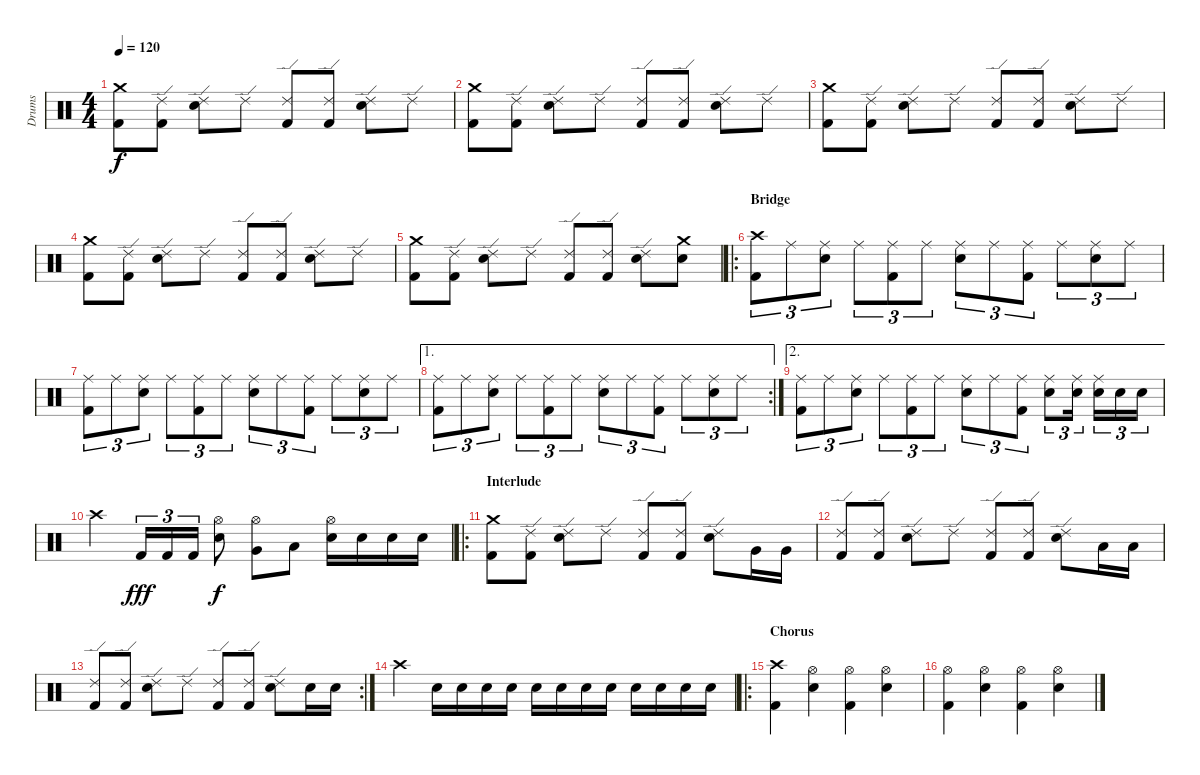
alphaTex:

\track ("Drums" "Drums") {instrument percussion}
\staff {score}
\articulation defaults
\ts (4 4)
\tempo 120
\clef neutral
\ks c
("Crash medium (hit)" "Kick (hit) 2").8{dy f} ("Ride (edge) 2" "Kick (hit) 2").8 ("Ride (edge) 2" "Electric Snare (hit)").8 "Ride (edge) 2".8 ("Ride (edge) 2" "Kick (hit) 2").8 ("Ride (edge) 2" "Kick (hit) 2").8 ("Ride (edge) 2" "Electric Snare (hit)").8 "Ride (edge) 2".8 |
("Crash medium (hit)" "Kick (hit) 2").8 ("Ride (edge) 2" "Kick (hit) 2").8 ("Ride (edge) 2" "Electric Snare (hit)").8 "Ride (edge) 2".8 ("Ride (edge) 2" "Kick (hit) 2").8 ("Ride (edge) 2" "Kick (hit) 2").8 ("Ride (edge) 2" "Electric Snare (hit)").8 "Ride (edge) 2".8 |
("Crash medium (hit)" "Kick (hit) 2").8 ("Ride (edge) 2" "Kick (hit) 2").8 ("Ride (edge) 2" "Electric Snare (hit)").8 "Ride (edge) 2".8 ("Ride (edge) 2" "Kick (hit) 2").8 ("Ride (edge) 2" "Kick (hit) 2").8 ("Ride (edge) 2" "Electric Snare (hit)").8 "Ride (edge) 2".8 |
("Crash medium (hit)" "Kick (hit) 2").8 ("Ride (edge) 2" "Kick (hit) 2").8 ("Ride (edge) 2" "Electric Snare (hit)").8 "Ride (edge) 2".8 ("Ride (edge) 2" "Kick (hit) 2").8 ("Ride (edge) 2" "Kick (hit) 2").8 ("Ride (edge) 2" "Electric Snare (hit)").8 "Ride (edge) 2".8 |
("Crash medium (hit)" "Kick (hit) 2").8 ("Ride (edge) 2" "Kick (hit) 2").8 ("Ride (edge) 2" "Electric Snare (hit)").8 "Ride (edge) 2".8 ("Ride (edge) 2" "Kick (hit) 2").8 ("Ride (edge) 2" "Kick (hit) 2").8 ("Ride (edge) 2" "Electric Snare (hit)").8 ("Crash medium (hit)" "Electric Snare (hit)").8 |
\ro
\section ("" "Bridge")
("Crash high (hit)" "Kick (hit) 2").8{tu (3 2)} "Ride (middle)".8{tu (3 2)} ("Ride (middle)" "Electric Snare (hit)").8{tu (3 2)} "Ride (middle)".8{tu (3 2)} ("Ride (middle)" "Kick (hit) 2").8{tu (3 2)} "Ride (middle)".8{tu (3 2)} ("Ride (middle)" "Electric Snare (hit)").8{tu (3 2)} "Ride (middle)".8{tu (3 2)} ("Ride (middle)" "Kick (hit) 2").8{tu (3 2)} "Ride (middle)".8{tu (3 2)} ("Ride (middle)" "Electric Snare (hit)").8{tu (3 2)} "Ride (middle)".8{tu (3 2)} |
("Ride (middle)" "Kick (hit) 2").8{tu (3 2)} "Ride (middle)".8{tu (3 2)} ("Ride (middle)" "Electric Snare (hit)").8{tu (3 2)} "Ride (middle)".8{tu (3 2)} ("Ride (middle)" "Kick (hit) 2").8{tu (3 2)} "Ride (middle)".8{tu (3 2)} ("Ride (middle)" "Electric Snare (hit)").8{tu (3 2)} "Ride (middle)".8{tu (3 2)} ("Ride (middle)" "Kick (hit) 2").8{tu (3 2)} "Ride (middle)".8{tu (3 2)} ("Ride (middle)" "Electric Snare (hit)").8{tu (3 2)} "Ride (middle)".8{tu (3 2)} |
\ae 1
\rc 2
("Ride (middle)" "Kick (hit) 2").8{tu (3 2)} "Ride (middle)".8{tu (3 2)} ("Ride (middle)" "Electric Snare (hit)").8{tu (3 2)} "Ride (middle)".8{tu (3 2)} ("Ride (middle)" "Kick (hit) 2").8{tu (3 2)} "Ride (middle)".8{tu (3 2)} ("Ride (middle)" "Electric Snare (hit)").8{tu (3 2)} "Ride (middle)".8{tu (3 2)} ("Ride (middle)" "Kick (hit) 2").8{tu (3 2)} "Ride (middle)".8{tu (3 2)} ("Ride (middle)" "Electric Snare (hit)").8{tu (3 2)} "Ride (middle)".8{tu (3 2)} |
\ae 2
("Ride (middle)" "Kick (hit) 2").8{tu (3 2)} "Ride (middle)".8{tu (3 2)} ("Ride (middle)" "Electric Snare (hit)").8{tu (3 2)} "Ride (middle)".8{tu (3 2)} ("Ride (middle)" "Kick (hit) 2").8{tu (3 2)} "Ride (middle)".8{tu (3 2)} ("Ride (middle)" "Electric Snare (hit)").8{tu (3 2)} "Ride (middle)".8{tu (3 2)} ("Ride (middle)" "Kick (hit) 2").8{tu (3 2)} ("Ride (middle)" "Electric Snare (hit)").8{tu (3 2)} ("Ride (middle)" "Electric Snare (hit)").16{tu (3 2)} ("Ride (middle)" "Electric Snare (hit)").16{tu (3 2)} "Electric Snare (hit)".16{tu (3 2)} "Electric Snare (hit)".16{tu (3 2)} |
"Crash high (hit)".4 "Kick (hit) 2".16{tu (3 2) dy fff} "Kick (hit) 2".16{tu (3 2)} "Kick (hit) 2".16{tu (3 2)} ("Hi-Hat (open)" "Electric Snare (hit)").8{dy f} ("Hi-Hat (open)" "Very Low Tom (hit)").8 "Low Floor Tom (hit)".8 ("Hi-Hat (open)" "Electric Snare (hit)").16 "Electric Snare (hit)".16 "Electric Snare (hit)".16 "Electric Snare (hit)".16 |
\ro
\section ("" "Interlude")
("Crash medium (hit)" "Kick (hit) 2").8 ("Ride (edge) 2" "Kick (hit) 2").8 ("Ride (edge) 2" "Electric Snare (hit)").8 "Ride (edge) 2".8 ("Ride (edge) 2" "Kick (hit) 2").8 ("Ride (edge) 2" "Kick (hit) 2").8 ("Ride (edge) 2" "Electric Snare (hit)").8 "Very Low Tom (hit)".16 "Very Low Tom (hit)".16 |
("Ride (edge) 2" "Kick (hit) 2").8 ("Ride (edge) 2" "Kick (hit) 2").8 ("Ride (edge) 2" "Electric Snare (hit)").8 "Ride (edge) 2".8 ("Ride (edge) 2" "Kick (hit) 2").8 ("Ride (edge) 2" "Kick (hit) 2").8 ("Ride (edge) 2" "Electric Snare (hit)").8 "Low Floor Tom (hit)".16 "Low Floor Tom (hit)".16 |
\rc 2
("Ride (edge) 2" "Kick (hit) 2").8 ("Ride (edge) 2" "Kick (hit) 2").8 ("Ride (edge) 2" "Electric Snare (hit)").8 "Ride (edge) 2".8 ("Ride (edge) 2" "Kick (hit) 2").8 ("Ride (edge) 2" "Kick (hit) 2").8 ("Ride (edge) 2" "Electric Snare (hit)").8 "Electric Snare (hit)".16 "Electric Snare (hit)".16 |
"Crash high (hit)".4{volume 8} "Electric Snare (hit)".16{volume 16} "Electric Snare (hit)".16 "Electric Snare (hit)".16 "Electric Snare (hit)".16 "Electric Snare (hit)".16 "Electric Snare (hit)".16 "Electric Snare (hit)".16 "Electric Snare (hit)".16 "Electric Snare (hit)".16 "Electric Snare (hit)".16 "Electric Snare (hit)".16 "Electric Snare (hit)".16 |
\ro
\section ("" "Chorus")
("Crash high (hit)" "Kick (hit) 2").4 ("Hi-Hat (open)" "Electric Snare (hit)").4 ("Hi-Hat (open)" "Kick (hit) 2").4 ("Hi-Hat (open)" "Electric Snare (hit)").4 |
("Hi-Hat (open)" "Kick (hit) 2").4 ("Hi-Hat (open)" "Electric Snare (hit)").4 ("Hi-Hat (open)" "Kick (hit) 2").4 ("Hi-Hat (open)" "Electric Snare (hit)").4
